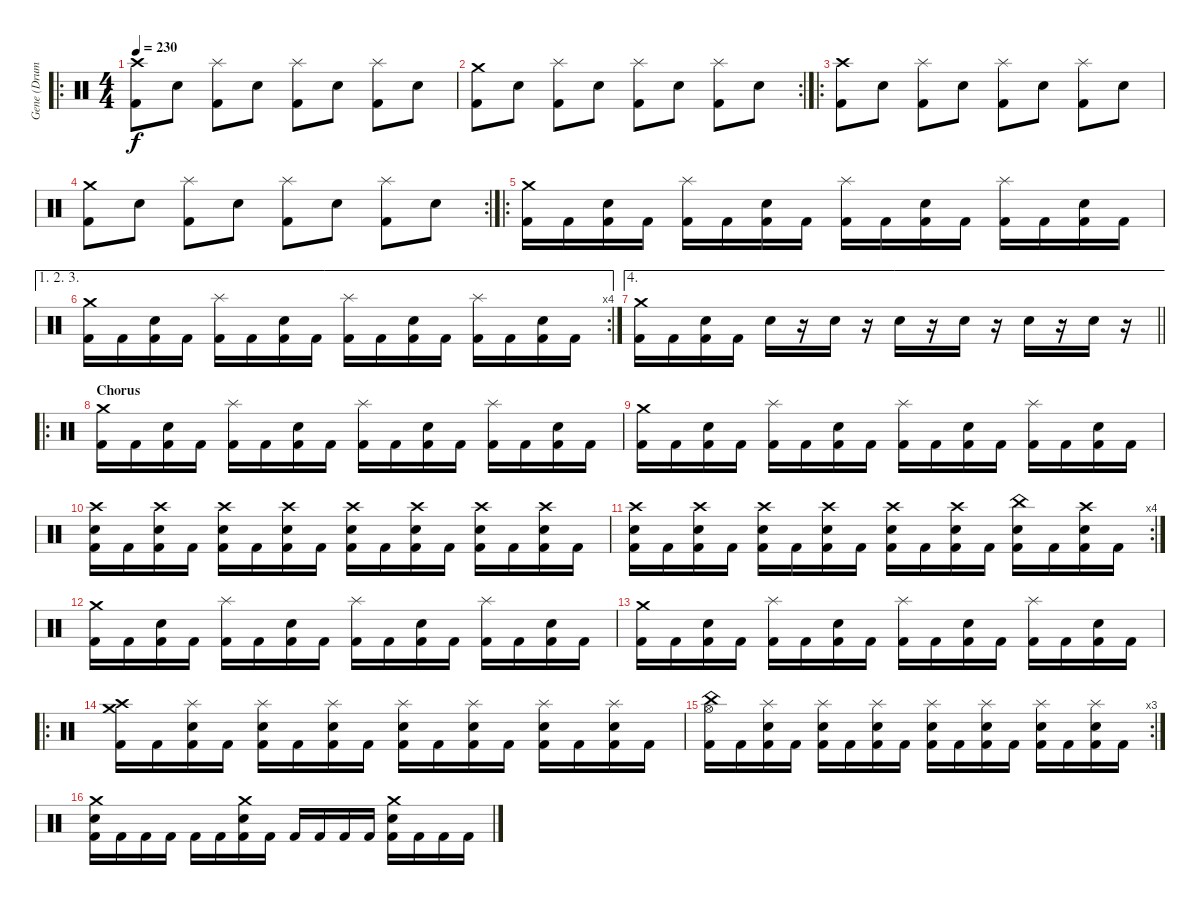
\track ("Gene (Drums)" "Gene (Drum") {instrument percussion}
\staff {score}
\articulation defaults
\ro
\ts (4 4)
\tempo 230
\clef neutral
\ks c
("Crash high (hit)" "Kick (hit) 2").8{dy f} "Electric Snare (hit)".8 ("Splash (hit)" "Kick (hit) 2").8 "Electric Snare (hit)".8 ("Splash (hit)" "Kick (hit) 2").8 "Electric Snare (hit)".8 ("Splash (hit)" "Kick (hit) 2").8 "Electric Snare (hit)".8 |
\rc 2
("Crash medium (hit)" "Kick (hit) 2").8 "Electric Snare (hit)".8 ("Splash (hit)" "Kick (hit) 2").8 "Electric Snare (hit)".8 ("Splash (hit)" "Kick (hit) 2").8 "Electric Snare (hit)".8 ("Splash (hit)" "Kick (hit) 2").8 "Electric Snare (hit)".8 |
\ro
("Crash high (hit)" "Kick (hit) 2").8 "Electric Snare (hit)".8 ("Splash (hit)" "Kick (hit) 2").8 "Electric Snare (hit)".8 ("Splash (hit)" "Kick (hit) 2").8 "Electric Snare (hit)".8 ("Splash (hit)" "Kick (hit) 2").8 "Electric Snare (hit)".8 |
\rc 2
("Crash medium (hit)" "Kick (hit) 2").8 "Electric Snare (hit)".8 ("Splash (hit)" "Kick (hit) 2").8 "Electric Snare (hit)".8 ("Splash (hit)" "Kick (hit) 2").8 "Electric Snare (hit)".8 ("Splash (hit)" "Kick (hit) 2").8 "Electric Snare (hit)".8 |
\ro
("Crash medium (hit)" "Kick (hit) 2").16 "Kick (hit) 2".16 ("Electric Snare (hit)" "Kick (hit) 2").16 "Kick (hit) 2".16 ("Splash (hit)" "Kick (hit) 2").16 "Kick (hit) 2".16 ("Electric Snare (hit)" "Kick (hit) 2").16 "Kick (hit) 2".16 ("Splash (hit)" "Kick (hit) 2").16 "Kick (hit) 2".16 ("Electric Snare (hit)" "Kick (hit) 2").16 "Kick (hit) 2".16 ("Splash (hit)" "Kick (hit) 2").16 "Kick (hit) 2".16 ("Electric Snare (hit)" "Kick (hit) 2").16 "Kick (hit) 2".16 |
\ae (1 2 3)
\rc 4
("Crash medium (hit)" "Kick (hit) 2").16 "Kick (hit) 2".16 ("Electric Snare (hit)" "Kick (hit) 2").16 "Kick (hit) 2".16 ("Splash (hit)" "Kick (hit) 2").16 "Kick (hit) 2".16 ("Electric Snare (hit)" "Kick (hit) 2").16 "Kick (hit) 2".16 ("Splash (hit)" "Kick (hit) 2").16 "Kick (hit) 2".16 ("Electric Snare (hit)" "Kick (hit) 2").16 "Kick (hit) 2".16 ("Splash (hit)" "Kick (hit) 2").16 "Kick (hit) 2".16 ("Electric Snare (hit)" "Kick (hit) 2").16 "Kick (hit) 2".16 |
\ae 4
\barLineRight lightlight
("Crash medium (hit)" "Kick (hit) 2").16 "Kick (hit) 2".16 ("Electric Snare (hit)" "Kick (hit) 2").16 "Kick (hit) 2".16 "Electric Snare (hit)".16 r.16 "Electric Snare (hit)".16 r.16 "Electric Snare (hit)".16 r.16 "Electric Snare (hit)".16 r.16 "Electric Snare (hit)".16 r.16 "Electric Snare (hit)".16 r.16 |
\ro
\section ("" "Chorus")
("Crash medium (hit)" "Kick (hit) 2").16 "Kick (hit) 2".16 ("Electric Snare (hit)" "Kick (hit) 2").16 "Kick (hit) 2".16 ("Splash (hit)" "Kick (hit) 2").16 "Kick (hit) 2".16 ("Electric Snare (hit)" "Kick (hit) 2").16 "Kick (hit) 2".16 ("Splash (hit)" "Kick (hit) 2").16 "Kick (hit) 2".16 ("Electric Snare (hit)" "Kick (hit) 2").16 "Kick (hit) 2".16 ("Splash (hit)" "Kick (hit) 2").16 "Kick (hit) 2".16 ("Electric Snare (hit)" "Kick (hit) 2").16 "Kick (hit) 2".16 |
("Crash medium (hit)" "Kick (hit) 2").16 "Kick (hit) 2".16 ("Electric Snare (hit)" "Kick (hit) 2").16 "Kick (hit) 2".16 ("Splash (hit)" "Kick (hit) 2").16 "Kick (hit) 2".16 ("Electric Snare (hit)" "Kick (hit) 2").16 "Kick (hit) 2".16 ("Splash (hit)" "Kick (hit) 2").16 "Kick (hit) 2".16 ("Electric Snare (hit)" "Kick (hit) 2").16 "Kick (hit) 2".16 ("Splash (hit)" "Kick (hit) 2").16 "Kick (hit) 2".16 ("Electric Snare (hit)" "Kick (hit) 2").16 "Kick (hit) 2".16 |
("Crash high (hit)" "Electric Snare (hit)" "Kick (hit) 2").16 "Kick (hit) 2".16 ("Crash high (hit)" "Electric Snare (hit)" "Kick (hit) 2").16 "Kick (hit) 2".16 ("Crash high (hit)" "Electric Snare (hit)" "Kick (hit) 2").16 "Kick (hit) 2".16 ("Crash high (hit)" "Electric Snare (hit)" "Kick (hit) 2").16 "Kick (hit) 2".16 ("Crash high (hit)" "Electric Snare (hit)" "Kick (hit) 2").16 "Kick (hit) 2".16 ("Crash high (hit)" "Electric Snare (hit)" "Kick (hit) 2").16 "Kick (hit) 2".16 ("Crash high (hit)" "Electric Snare (hit)" "Kick (hit) 2").16 "Kick (hit) 2".16 ("Crash high (hit)" "Electric Snare (hit)" "Kick (hit) 2").16 "Kick (hit) 2".16 |
\rc 4
("Crash high (hit)" "Electric Snare (hit)" "Kick (hit) 2").16 "Kick (hit) 2".16 ("Crash high (hit)" "Electric Snare (hit)" "Kick (hit) 2").16 "Kick (hit) 2".16 ("Crash high (hit)" "Electric Snare (hit)" "Kick (hit) 2").16 "Kick (hit) 2".16 ("Crash high (hit)" "Electric Snare (hit)" "Kick (hit) 2").16 "Kick (hit) 2".16 ("Crash high (hit)" "Electric Snare (hit)" "Kick (hit) 2").16 "Kick (hit) 2".16 ("Crash high (hit)" "Electric Snare (hit)" "Kick (hit) 2").16 "Kick (hit) 2".16 ("China (hit)" "Electric Snare (hit)" "Kick (hit) 2").16 "Kick (hit) 2".16 ("Crash high (hit)" "Electric Snare (hit)" "Kick (hit) 2").16 "Kick (hit) 2".16 |
("Crash medium (hit)" "Kick (hit) 2").16 "Kick (hit) 2".16 ("Electric Snare (hit)" "Kick (hit) 2").16 "Kick (hit) 2".16 ("Splash (hit)" "Kick (hit) 2").16 "Kick (hit) 2".16 ("Electric Snare (hit)" "Kick (hit) 2").16 "Kick (hit) 2".16 ("Splash (hit)" "Kick (hit) 2").16 "Kick (hit) 2".16 ("Electric Snare (hit)" "Kick (hit) 2").16 "Kick (hit) 2".16 ("Splash (hit)" "Kick (hit) 2").16 "Kick (hit) 2".16 ("Electric Snare (hit)" "Kick (hit) 2").16 "Kick (hit) 2".16 |
("Crash medium (hit)" "Kick (hit) 2").16 "Kick (hit) 2".16 ("Electric Snare (hit)" "Kick (hit) 2").16 "Kick (hit) 2".16 ("Splash (hit)" "Kick (hit) 2").16 "Kick (hit) 2".16 ("Electric Snare (hit)" "Kick (hit) 2").16 "Kick (hit) 2".16 ("Splash (hit)" "Kick (hit) 2").16 "Kick (hit) 2".16 ("Electric Snare (hit)" "Kick (hit) 2").16 "Kick (hit) 2".16 ("Splash (hit)" "Kick (hit) 2").16 "Kick (hit) 2".16 ("Electric Snare (hit)" "Kick (hit) 2").16 "Kick (hit) 2".16 |
\ro
("Crash medium (hit)" "Crash high (hit)" "Kick (hit) 2").16 "Kick (hit) 2".16 ("Splash (hit)" "Electric Snare (hit)" "Kick (hit) 2").16 "Kick (hit) 2".16 ("Splash (hit)" "Electric Snare (hit)" "Kick (hit) 2").16 "Kick (hit) 2".16 ("Splash (hit)" "Electric Snare (hit)" "Kick (hit) 2").16 "Kick (hit) 2".16 ("Splash (hit)" "Electric Snare (hit)" "Kick (hit) 2").16 "Kick (hit) 2".16 ("Splash (hit)" "Electric Snare (hit)" "Kick (hit) 2").16 "Kick (hit) 2".16 ("Splash (hit)" "Electric Snare (hit)" "Kick (hit) 2").16 "Kick (hit) 2".16 ("Splash (hit)" "Electric Snare (hit)" "Kick (hit) 2").16 "Kick (hit) 2".16 |
\rc 3
("Hi-Hat (open)" "China (hit)" "Kick (hit) 2").16 "Kick (hit) 2".16 ("Splash (hit)" "Electric Snare (hit)" "Kick (hit) 2").16 "Kick (hit) 2".16 ("Splash (hit)" "Electric Snare (hit)" "Kick (hit) 2").16 "Kick (hit) 2".16 ("Splash (hit)" "Electric Snare (hit)" "Kick (hit) 2").16 "Kick (hit) 2".16 ("Splash (hit)" "Electric Snare (hit)" "Kick (hit) 2").16 "Kick (hit) 2".16 ("Splash (hit)" "Electric Snare (hit)" "Kick (hit) 2").16 "Kick (hit) 2".16 ("Splash (hit)" "Electric Snare (hit)" "Kick (hit) 2").16 "Kick (hit) 2".16 ("Splash (hit)" "Electric Snare (hit)" "Kick (hit) 2").16 "Kick (hit) 2".16 |
("Crash medium (hit)" "Electric Snare (hit)" "Kick (hit) 2").16 "Kick (hit) 2".16 "Kick (hit) 2".16 "Kick (hit) 2".16 "Kick (hit) 2".16 "Kick (hit) 2".16 ("Crash medium (hit)" "Electric Snare (hit)" "Kick (hit) 2").16 "Kick (hit) 2".16 "Kick (hit) 2".16 "Kick (hit) 2".16 "Kick (hit) 2".16 "Kick (hit) 2".16 ("Crash medium (hit)" "Electric Snare (hit)" "Kick (hit) 2").16 "Kick (hit) 2".16 "Kick (hit) 2".16 "Kick (hit) 2".16
